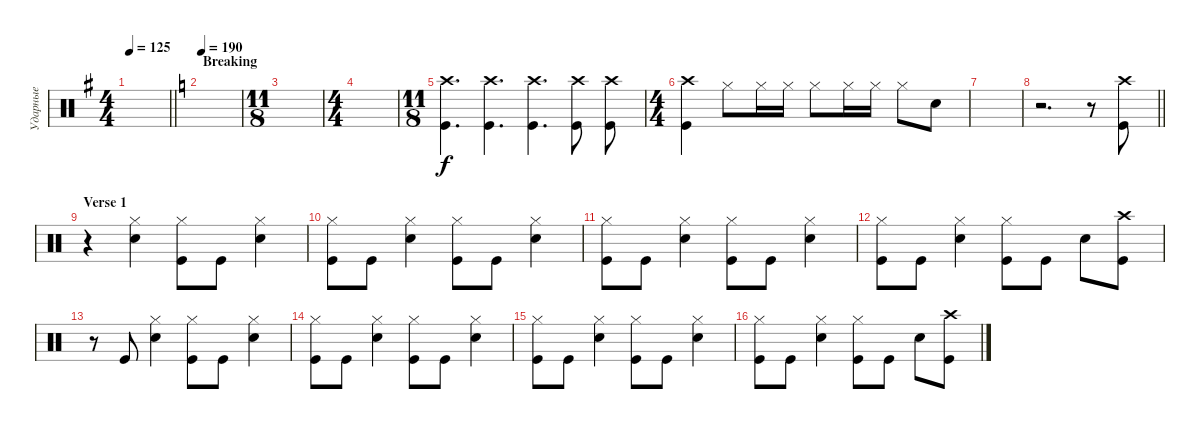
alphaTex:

\track ("Ударные" "Ударные") {instrument percussion}
\staff {score}
\articulation defaults
\ts (4 4)
\tempo 125
\clef neutral
\barLineRight lightlight
\ks eminor
|
\section ("" "Breaking")
\tempo 190
\ks aminor
|
\ts (11 8)
|
\ts (4 4)
|
\ts (11 8)
("Kick (hit)" "Crash high (hit)").4{d} ("Kick (hit)" "Crash high (hit)").4{d} ("Kick (hit)" "Crash high (hit)").4{d} ("Kick (hit)" "Crash high (hit)").8 ("Kick (hit)" "Crash high (hit)").8 |
\ts (4 4)
("Kick (hit)" "Crash high (hit)").4 "Hi-Hat (closed)".8 "Hi-Hat (closed)".16 "Hi-Hat (closed)".16 "Hi-Hat (closed)".8 "Hi-Hat (closed)".16 "Hi-Hat (closed)".16 "Hi-Hat (closed)".8 "Snare (hit) 2".8 |
|
\barLineRight lightlight
r.2{d} r.8 ("Kick (hit)" "Crash high (hit)").8 |
\section ("" "Verse 1")
r.4 ("Snare (hit) 2" "Hi-Hat (closed)").4 ("Kick (hit)" "Hi-Hat (closed)").8 "Kick (hit)".8 ("Snare (hit) 2" "Hi-Hat (closed)").4 |
("Kick (hit)" "Hi-Hat (closed)").8 "Kick (hit)".8 ("Snare (hit) 2" "Hi-Hat (closed)").4 ("Kick (hit)" "Hi-Hat (closed)").8 "Kick (hit)".8 ("Snare (hit) 2" "Hi-Hat (closed)").4 |
("Kick (hit)" "Hi-Hat (closed)").8 "Kick (hit)".8 ("Snare (hit) 2" "Hi-Hat (closed)").4 ("Kick (hit)" "Hi-Hat (closed)").8 "Kick (hit)".8 ("Snare (hit) 2" "Hi-Hat (closed)").4 |
("Kick (hit)" "Hi-Hat (closed)").8 "Kick (hit)".8 ("Snare (hit) 2" "Hi-Hat (closed)").4 ("Kick (hit)" "Hi-Hat (closed)").8 "Kick (hit)".8 "Snare (hit) 2".8 ("Kick (hit)" "Crash high (hit)").8 |
r.8 "Kick (hit)".8 ("Snare (hit) 2" "Hi-Hat (closed)").4 ("Kick (hit)" "Hi-Hat (closed)").8 "Kick (hit)".8 ("Snare (hit) 2" "Hi-Hat (closed)").4 |
("Kick (hit)" "Hi-Hat (closed)").8 "Kick (hit)".8 ("Snare (hit) 2" "Hi-Hat (closed)").4 ("Kick (hit)" "Hi-Hat (closed)").8 "Kick (hit)".8 ("Snare (hit) 2" "Hi-Hat (closed)").4 |
("Kick (hit)" "Hi-Hat (closed)").8 "Kick (hit)".8 ("Snare (hit) 2" "Hi-Hat (closed)").4 ("Kick (hit)" "Hi-Hat (closed)").8 "Kick (hit)".8 ("Snare (hit) 2" "Hi-Hat (closed)").4 |
("Kick (hit)" "Hi-Hat (closed)").8 "Kick (hit)".8 ("Snare (hit) 2" "Hi-Hat (closed)").4 ("Kick (hit)" "Hi-Hat (closed)").8 "Kick (hit)".8 "Snare (hit) 2".8 ("Kick (hit)" "Crash high (hit)").8
